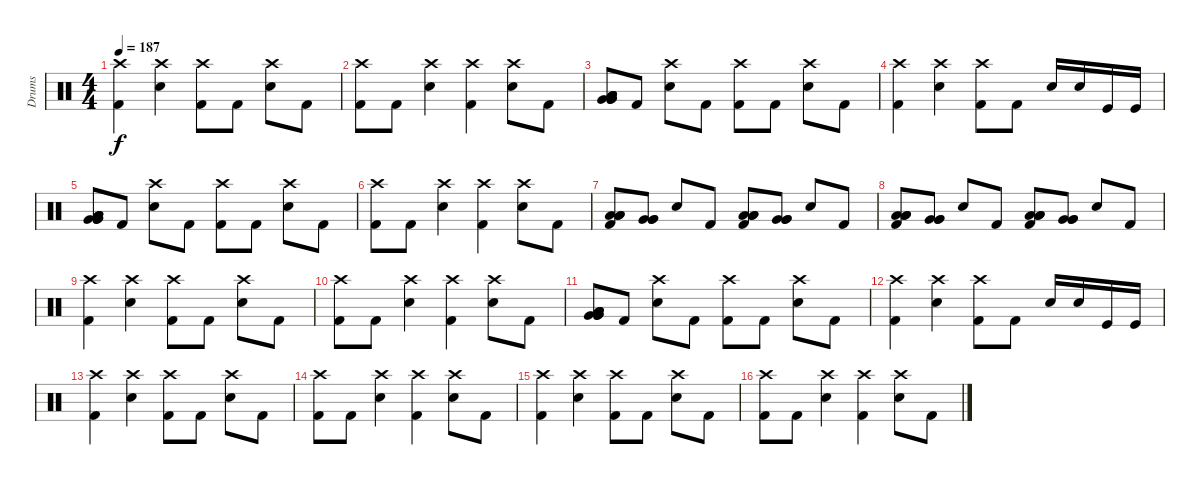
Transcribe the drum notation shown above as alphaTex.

\track ("Drums" "Drums") {instrument percussion}
\staff {score}
\articulation defaults
\ts (4 4)
\tempo 187
\clef neutral
\ks c
("Crash high (hit)" "Kick (hit) 2").4{dy f} ("Crash high (hit)" "Electric Snare (hit)").4 ("Crash high (hit)" "Kick (hit) 2").8 "Kick (hit) 2".8 ("Crash high (hit)" "Electric Snare (hit)").8 "Kick (hit) 2".8 |
("Crash high (hit)" "Kick (hit) 2").8 "Kick (hit) 2".8 ("Crash high (hit)" "Electric Snare (hit)").4 ("Crash high (hit)" "Kick (hit) 2").4 ("Crash high (hit)" "Electric Snare (hit)").8 "Kick (hit) 2".8 |
("Low Tom (hit)" "Low Tom (hit)" "Low Tom (hit)" "Very Low Tom (hit)" "Very Low Tom (hit)" "Very Low Tom (hit)").8 "Kick (hit) 2".8 ("Crash high (hit)" "Electric Snare (hit)").8 "Kick (hit) 2".8 ("Crash high (hit)" "Kick (hit) 2").8 "Kick (hit) 2".8 ("Crash high (hit)" "Electric Snare (hit)").8 "Kick (hit) 2".8 |
("Crash high (hit)" "Kick (hit) 2").4 ("Crash high (hit)" "Electric Snare (hit)").4 ("Crash high (hit)" "Kick (hit) 2").8 "Kick (hit) 2".8 "Electric Snare (hit)".16 "Electric Snare (hit)".16 "Kick (hit)".16 "Kick (hit)".16 |
("Low Tom (hit)" "Low Tom (hit)" "Low Tom (hit)" "Very Low Tom (hit)" "Very Low Tom (hit)" "Very Low Tom (hit)").8 "Kick (hit) 2".8 ("Crash high (hit)" "Electric Snare (hit)").8 "Kick (hit) 2".8 ("Crash high (hit)" "Kick (hit) 2").8 "Kick (hit) 2".8 ("Crash high (hit)" "Electric Snare (hit)").8 "Kick (hit) 2".8 |
("Crash high (hit)" "Kick (hit) 2").8 "Kick (hit) 2".8 ("Crash high (hit)" "Electric Snare (hit)").4 ("Crash high (hit)" "Kick (hit) 2").4 ("Crash high (hit)" "Electric Snare (hit)").8 "Kick (hit) 2".8 |
("Low Tom (hit)" "Low Tom (hit)" "Low Tom (hit)" "Kick (hit) 2").8 ("Very Low Tom (hit)" "Very Low Tom (hit)" "Very Low Tom (hit)").8 "Electric Snare (hit)".8 "Kick (hit) 2".8 ("Low Tom (hit)" "Low Tom (hit)" "Low Tom (hit)" "Kick (hit) 2").8 ("Very Low Tom (hit)" "Very Low Tom (hit)" "Very Low Tom (hit)").8 "Electric Snare (hit)".8 "Kick (hit) 2".8 |
("Low Tom (hit)" "Low Tom (hit)" "Low Tom (hit)" "Kick (hit) 2").8 ("Very Low Tom (hit)" "Very Low Tom (hit)" "Very Low Tom (hit)").8 "Electric Snare (hit)".8 "Kick (hit) 2".8 ("Low Tom (hit)" "Low Tom (hit)" "Low Tom (hit)" "Kick (hit) 2").8 ("Very Low Tom (hit)" "Very Low Tom (hit)" "Very Low Tom (hit)").8 "Electric Snare (hit)".8 "Kick (hit) 2".8 |
("Crash high (hit)" "Kick (hit) 2").4 ("Crash high (hit)" "Electric Snare (hit)").4 ("Crash high (hit)" "Kick (hit) 2").8 "Kick (hit) 2".8 ("Crash high (hit)" "Electric Snare (hit)").8 "Kick (hit) 2".8 |
("Crash high (hit)" "Kick (hit) 2").8 "Kick (hit) 2".8 ("Crash high (hit)" "Electric Snare (hit)").4 ("Crash high (hit)" "Kick (hit) 2").4 ("Crash high (hit)" "Electric Snare (hit)").8 "Kick (hit) 2".8 |
("Low Tom (hit)" "Low Tom (hit)" "Low Tom (hit)" "Very Low Tom (hit)" "Very Low Tom (hit)" "Very Low Tom (hit)").8 "Kick (hit) 2".8 ("Crash high (hit)" "Electric Snare (hit)").8 "Kick (hit) 2".8 ("Crash high (hit)" "Kick (hit) 2").8 "Kick (hit) 2".8 ("Crash high (hit)" "Electric Snare (hit)").8 "Kick (hit) 2".8 |
("Crash high (hit)" "Kick (hit) 2").4 ("Crash high (hit)" "Electric Snare (hit)").4 ("Crash high (hit)" "Kick (hit) 2").8 "Kick (hit) 2".8 "Electric Snare (hit)".16 "Electric Snare (hit)".16 "Kick (hit)".16 "Kick (hit)".16 |
("Crash high (hit)" "Kick (hit) 2").4 ("Crash high (hit)" "Electric Snare (hit)").4 ("Crash high (hit)" "Kick (hit) 2").8 "Kick (hit) 2".8 ("Crash high (hit)" "Electric Snare (hit)").8 "Kick (hit) 2".8 |
("Crash high (hit)" "Kick (hit) 2").8 "Kick (hit) 2".8 ("Crash high (hit)" "Electric Snare (hit)").4 ("Crash high (hit)" "Kick (hit) 2").4 ("Crash high (hit)" "Electric Snare (hit)").8 "Kick (hit) 2".8 |
("Crash high (hit)" "Kick (hit) 2").4 ("Crash high (hit)" "Electric Snare (hit)").4 ("Crash high (hit)" "Kick (hit) 2").8 "Kick (hit) 2".8 ("Crash high (hit)" "Electric Snare (hit)").8 "Kick (hit) 2".8 |
("Crash high (hit)" "Kick (hit) 2").8 "Kick (hit) 2".8 ("Crash high (hit)" "Electric Snare (hit)").4 ("Crash high (hit)" "Kick (hit) 2").4 ("Crash high (hit)" "Electric Snare (hit)").8 "Kick (hit) 2".8
